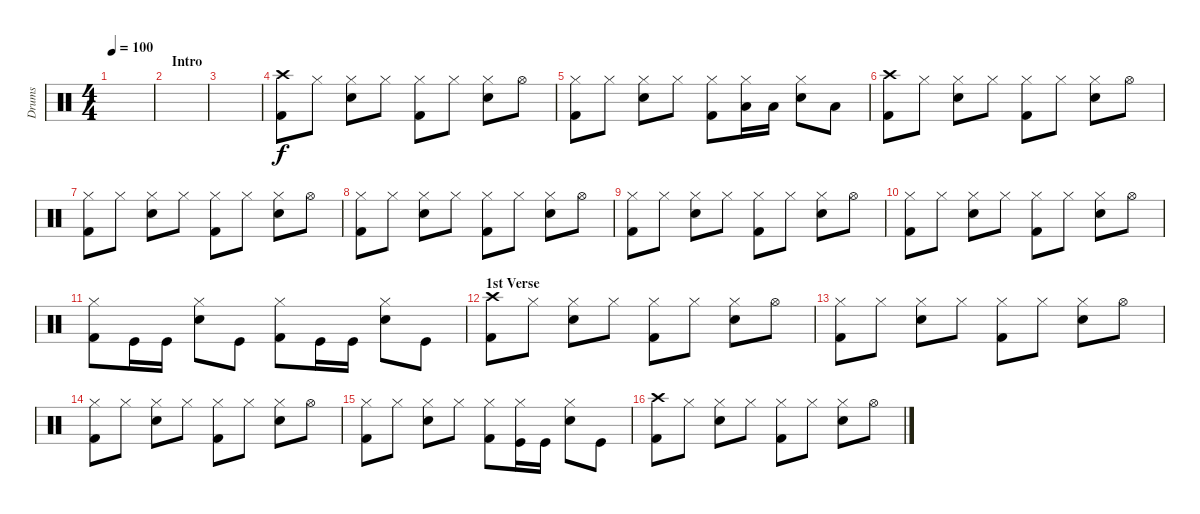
\track ("Drums" "Drums") {instrument percussion}
\staff {score}
\articulation defaults
\ts (4 4)
\tempo 100
\clef neutral
\ks c
|
\section ("" " Intro")
|
|
("Kick (hit) 2" "Crash high (hit)").8 "Hi-Hat (closed)".8 ("Snare (hit) 2" "Hi-Hat (closed)").8 "Hi-Hat (closed)".8 ("Kick (hit) 2" "Hi-Hat (closed)").8 "Hi-Hat (closed)".8 ("Snare (hit) 2" "Hi-Hat (closed)").8 "Hi-Hat (open)".8 |
("Kick (hit) 2" "Hi-Hat (closed)").8 "Hi-Hat (closed)".8 ("Snare (hit) 2" "Hi-Hat (closed)").8 "Hi-Hat (closed)".8 ("Kick (hit) 2" "Hi-Hat (closed)").8 ("Low Tom (hit)" "Hi-Hat (closed)").16 "Low Tom (hit)".16 ("Snare (hit) 2" "Hi-Hat (closed)").8 "Low Tom (hit)".8 |
("Kick (hit) 2" "Crash high (hit)").8 "Hi-Hat (closed)".8 ("Snare (hit) 2" "Hi-Hat (closed)").8 "Hi-Hat (closed)".8 ("Kick (hit) 2" "Hi-Hat (closed)").8 "Hi-Hat (closed)".8 ("Snare (hit) 2" "Hi-Hat (closed)").8 "Hi-Hat (open)".8 |
("Kick (hit) 2" "Hi-Hat (closed)").8 "Hi-Hat (closed)".8 ("Snare (hit) 2" "Hi-Hat (closed)").8 "Hi-Hat (closed)".8 ("Kick (hit) 2" "Hi-Hat (closed)").8 "Hi-Hat (closed)".8 ("Snare (hit) 2" "Hi-Hat (closed)").8 "Hi-Hat (open)".8 |
("Kick (hit) 2" "Hi-Hat (closed)").8 "Hi-Hat (closed)".8 ("Snare (hit) 2" "Hi-Hat (closed)").8 "Hi-Hat (closed)".8 ("Kick (hit) 2" "Hi-Hat (closed)").8 "Hi-Hat (closed)".8 ("Snare (hit) 2" "Hi-Hat (closed)").8 "Hi-Hat (open)".8 |
("Kick (hit) 2" "Hi-Hat (closed)").8 "Hi-Hat (closed)".8 ("Snare (hit) 2" "Hi-Hat (closed)").8 "Hi-Hat (closed)".8 ("Kick (hit) 2" "Hi-Hat (closed)").8 "Hi-Hat (closed)".8 ("Snare (hit) 2" "Hi-Hat (closed)").8 "Hi-Hat (open)".8 |
("Kick (hit) 2" "Hi-Hat (closed)").8 "Hi-Hat (closed)".8 ("Snare (hit) 2" "Hi-Hat (closed)").8 "Hi-Hat (closed)".8 ("Kick (hit) 2" "Hi-Hat (closed)").8 "Hi-Hat (closed)".8 ("Snare (hit) 2" "Hi-Hat (closed)").8 "Hi-Hat (open)".8 |
("Kick (hit) 2" "Hi-Hat (closed)").8 "Kick (hit)".16 "Kick (hit)".16 ("Snare (hit) 2" "Hi-Hat (closed)").8 "Kick (hit)".8 ("Kick (hit) 2" "Hi-Hat (closed)").8 "Kick (hit)".16 "Kick (hit)".16 ("Snare (hit) 2" "Hi-Hat (closed)").8 "Kick (hit)".8 |
\section ("" "1st Verse")
("Kick (hit) 2" "Crash high (hit)").8 "Hi-Hat (closed)".8 ("Snare (hit) 2" "Hi-Hat (closed)").8 "Hi-Hat (closed)".8 ("Kick (hit) 2" "Hi-Hat (closed)").8 "Hi-Hat (closed)".8 ("Snare (hit) 2" "Hi-Hat (closed)").8 "Hi-Hat (open)".8 |
("Kick (hit) 2" "Hi-Hat (closed)").8 "Hi-Hat (closed)".8 ("Snare (hit) 2" "Hi-Hat (closed)").8 "Hi-Hat (closed)".8 ("Kick (hit) 2" "Hi-Hat (closed)").8 "Hi-Hat (closed)".8 ("Snare (hit) 2" "Hi-Hat (closed)").8 "Hi-Hat (open)".8 |
("Kick (hit) 2" "Hi-Hat (closed)").8 "Hi-Hat (closed)".8 ("Snare (hit) 2" "Hi-Hat (closed)").8 "Hi-Hat (closed)".8 ("Kick (hit) 2" "Hi-Hat (closed)").8 "Hi-Hat (closed)".8 ("Snare (hit) 2" "Hi-Hat (closed)").8 "Hi-Hat (open)".8 |
("Kick (hit) 2" "Hi-Hat (closed)").8 "Hi-Hat (closed)".8 ("Snare (hit) 2" "Hi-Hat (closed)").8 "Hi-Hat (closed)".8 ("Kick (hit) 2" "Hi-Hat (closed)").8 ("Kick (hit)" "Hi-Hat (closed)").16 "Kick (hit)".16 ("Snare (hit) 2" "Hi-Hat (closed)").8 "Kick (hit)".8 |
("Kick (hit) 2" "Crash high (hit)").8 "Hi-Hat (closed)".8 ("Snare (hit) 2" "Hi-Hat (closed)").8 "Hi-Hat (closed)".8 ("Kick (hit) 2" "Hi-Hat (closed)").8 "Hi-Hat (closed)".8 ("Snare (hit) 2" "Hi-Hat (closed)").8 "Hi-Hat (open)".8
